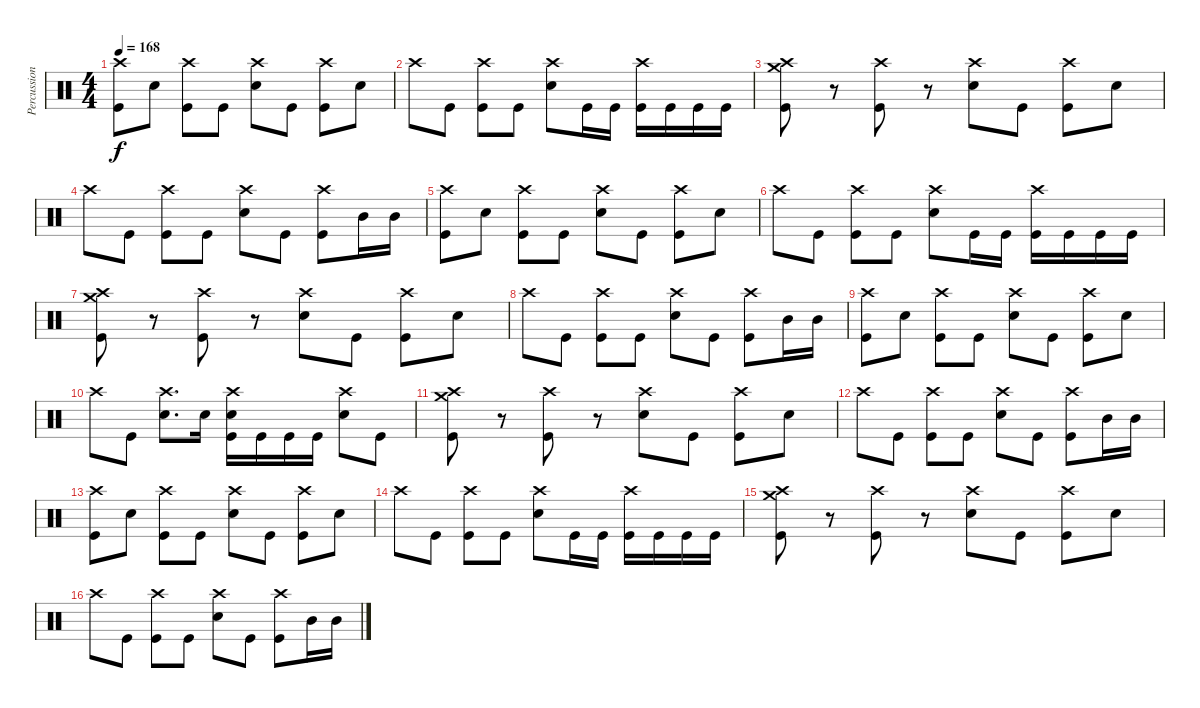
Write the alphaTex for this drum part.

\track ("Percussion" "Percussion") {instrument percussion}
\staff {score}
\articulation defaults
\ts (4 4)
\tempo 168
\clef neutral
\ks c
("Crash high (hit)" "Kick (hit)").8{dy f} "Snare (hit) 2".8 ("Crash high (hit)" "Kick (hit)").8 "Kick (hit)".8 ("Crash high (hit)" "Snare (hit) 2").8 "Kick (hit)".8 ("Crash high (hit)" "Kick (hit)").8 "Snare (hit) 2".8 |
"Crash high (hit)".8 "Kick (hit)".8 ("Crash high (hit)" "Kick (hit)").8 "Kick (hit)".8 ("Crash high (hit)" "Snare (hit) 2").8 "Kick (hit)".16 "Kick (hit)".16 ("Crash high (hit)" "Kick (hit)").16 "Kick (hit)".16 "Kick (hit)".16 "Kick (hit)".16 |
("Crash high (hit)" "Crash medium (hit)" "Kick (hit)").8 r.8 ("Crash high (hit)" "Kick (hit)").8 r.8 ("Crash high (hit)" "Snare (hit) 2").8 "Kick (hit)".8 ("Crash high (hit)" "Kick (hit)").8 "Snare (hit) 2".8 |
"Crash high (hit)".8 "Kick (hit)".8 ("Crash high (hit)" "Kick (hit)").8 "Kick (hit)".8 ("Crash high (hit)" "Snare (hit) 2").8 "Kick (hit)".8 ("Crash high (hit)" "Kick (hit)").8 "Mid Tom (hit)".16 "Mid Tom (hit)".16 |
("Crash high (hit)" "Kick (hit)").8 "Snare (hit) 2".8 ("Crash high (hit)" "Kick (hit)").8 "Kick (hit)".8 ("Crash high (hit)" "Snare (hit) 2").8 "Kick (hit)".8 ("Crash high (hit)" "Kick (hit)").8 "Snare (hit) 2".8 |
"Crash high (hit)".8 "Kick (hit)".8 ("Crash high (hit)" "Kick (hit)").8 "Kick (hit)".8 ("Crash high (hit)" "Snare (hit) 2").8 "Kick (hit)".16 "Kick (hit)".16 ("Crash high (hit)" "Kick (hit)").16 "Kick (hit)".16 "Kick (hit)".16 "Kick (hit)".16 |
("Crash high (hit)" "Crash medium (hit)" "Kick (hit)").8 r.8 ("Crash high (hit)" "Kick (hit)").8 r.8 ("Crash high (hit)" "Snare (hit) 2").8 "Kick (hit)".8 ("Crash high (hit)" "Kick (hit)").8 "Snare (hit) 2".8 |
"Crash high (hit)".8 "Kick (hit)".8 ("Crash high (hit)" "Kick (hit)").8 "Kick (hit)".8 ("Crash high (hit)" "Snare (hit) 2").8 "Kick (hit)".8 ("Crash high (hit)" "Kick (hit)").8 "Mid Tom (hit)".16 "Mid Tom (hit)".16 |
("Crash high (hit)" "Kick (hit)").8 "Snare (hit) 2".8 ("Crash high (hit)" "Kick (hit)").8 "Kick (hit)".8 ("Crash high (hit)" "Snare (hit) 2").8 "Kick (hit)".8 ("Crash high (hit)" "Kick (hit)").8 "Snare (hit) 2".8 |
"Crash high (hit)".8 "Kick (hit)".8 ("Crash high (hit)" "Snare (hit) 2").8{d} "Snare (hit) 2".16 ("Crash high (hit)" "Snare (hit) 2" "Kick (hit)").16 "Kick (hit)".16 "Kick (hit)".16 "Kick (hit)".16 ("Crash high (hit)" "Snare (hit) 2").8 "Kick (hit)".8 |
("Crash high (hit)" "Crash medium (hit)" "Kick (hit)").8{volume 10} r.8 ("Crash high (hit)" "Kick (hit)").8 r.8 ("Crash high (hit)" "Snare (hit) 2").8 "Kick (hit)".8 ("Crash high (hit)" "Kick (hit)").8 "Snare (hit) 2".8 |
"Crash high (hit)".8 "Kick (hit)".8 ("Crash high (hit)" "Kick (hit)").8 "Kick (hit)".8 ("Crash high (hit)" "Snare (hit) 2").8 "Kick (hit)".8 ("Crash high (hit)" "Kick (hit)").8 "Mid Tom (hit)".16 "Mid Tom (hit)".16 |
("Crash high (hit)" "Kick (hit)").8 "Snare (hit) 2".8 ("Crash high (hit)" "Kick (hit)").8 "Kick (hit)".8 ("Crash high (hit)" "Snare (hit) 2").8 "Kick (hit)".8 ("Crash high (hit)" "Kick (hit)").8 "Snare (hit) 2".8 |
"Crash high (hit)".8 "Kick (hit)".8 ("Crash high (hit)" "Kick (hit)").8 "Kick (hit)".8 ("Crash high (hit)" "Snare (hit) 2").8 "Kick (hit)".16 "Kick (hit)".16 ("Crash high (hit)" "Kick (hit)").16 "Kick (hit)".16 "Kick (hit)".16 "Kick (hit)".16 |
("Crash high (hit)" "Crash medium (hit)" "Kick (hit)").8{volume 6} r.8 ("Crash high (hit)" "Kick (hit)").8 r.8 ("Crash high (hit)" "Snare (hit) 2").8 "Kick (hit)".8 ("Crash high (hit)" "Kick (hit)").8 "Snare (hit) 2".8 |
"Crash high (hit)".8 "Kick (hit)".8 ("Crash high (hit)" "Kick (hit)").8 "Kick (hit)".8 ("Crash high (hit)" "Snare (hit) 2").8 "Kick (hit)".8 ("Crash high (hit)" "Kick (hit)").8 "Mid Tom (hit)".16 "Mid Tom (hit)".16
